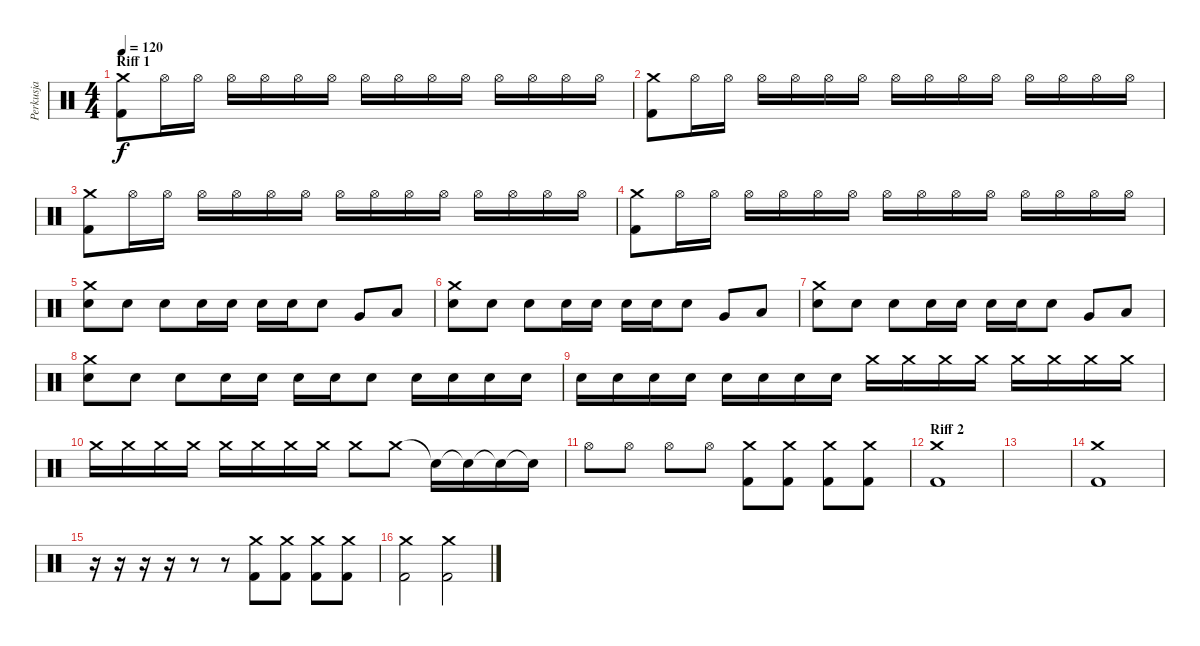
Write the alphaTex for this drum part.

\track ("Perkusja" "Perkusja") {instrument percussion}
\staff {score}
\articulation defaults
\ts (4 4)
\section ("" "Riff 1")
\tempo 120
\clef neutral
\ks c
("Crash medium (hit)" "Kick (hit) 2").8{dy f} "Hi-Hat (open)".16 "Hi-Hat (open)".16 "Hi-Hat (open)".16 "Hi-Hat (open)".16 "Hi-Hat (open)".16 "Hi-Hat (open)".16 "Hi-Hat (open)".16 "Hi-Hat (open)".16 "Hi-Hat (open)".16 "Hi-Hat (open)".16 "Hi-Hat (open)".16 "Hi-Hat (open)".16 "Hi-Hat (open)".16 "Hi-Hat (open)".16 |
("Crash medium (hit)" "Kick (hit) 2").8 "Hi-Hat (open)".16 "Hi-Hat (open)".16 "Hi-Hat (open)".16 "Hi-Hat (open)".16 "Hi-Hat (open)".16 "Hi-Hat (open)".16 "Hi-Hat (open)".16 "Hi-Hat (open)".16 "Hi-Hat (open)".16 "Hi-Hat (open)".16 "Hi-Hat (open)".16 "Hi-Hat (open)".16 "Hi-Hat (open)".16 "Hi-Hat (open)".16 |
("Crash medium (hit)" "Kick (hit) 2").8 "Hi-Hat (open)".16 "Hi-Hat (open)".16 "Hi-Hat (open)".16 "Hi-Hat (open)".16 "Hi-Hat (open)".16 "Hi-Hat (open)".16 "Hi-Hat (open)".16 "Hi-Hat (open)".16 "Hi-Hat (open)".16 "Hi-Hat (open)".16 "Hi-Hat (open)".16 "Hi-Hat (open)".16 "Hi-Hat (open)".16 "Hi-Hat (open)".16 |
("Crash medium (hit)" "Kick (hit) 2").8 "Hi-Hat (open)".16 "Hi-Hat (open)".16 "Hi-Hat (open)".16 "Hi-Hat (open)".16 "Hi-Hat (open)".16 "Hi-Hat (open)".16 "Hi-Hat (open)".16 "Hi-Hat (open)".16 "Hi-Hat (open)".16 "Hi-Hat (open)".16 "Hi-Hat (open)".16 "Hi-Hat (open)".16 "Hi-Hat (open)".16 "Hi-Hat (open)".16 |
("Crash medium (hit)" "Snare (hit) 2").8 "Snare (hit) 2".8 "Snare (hit) 2".8 "Snare (hit) 2".16 "Snare (hit) 2".16 "Snare (hit) 2".16 "Snare (hit) 2".16 "Snare (hit) 2".8 "Very Low Tom (hit)".8 "Low Tom (hit)".8 |
("Crash medium (hit)" "Snare (hit) 2").8 "Snare (hit) 2".8 "Snare (hit) 2".8 "Snare (hit) 2".16 "Snare (hit) 2".16 "Snare (hit) 2".16 "Snare (hit) 2".16 "Snare (hit) 2".8 "Very Low Tom (hit)".8 "Low Tom (hit)".8 |
("Crash medium (hit)" "Snare (hit) 2").8 "Snare (hit) 2".8 "Snare (hit) 2".8 "Snare (hit) 2".16 "Snare (hit) 2".16 "Snare (hit) 2".16 "Snare (hit) 2".16 "Snare (hit) 2".8 "Very Low Tom (hit)".8 "Low Tom (hit)".8 |
("Crash medium (hit)" "Snare (hit) 2").8 "Snare (hit) 2".8 "Snare (hit) 2".8 "Snare (hit) 2".16 "Snare (hit) 2".16 "Snare (hit) 2".16 "Snare (hit) 2".16 "Snare (hit) 2".8 "Snare (hit) 2".16 "Snare (hit) 2".16 "Snare (hit) 2".16 "Snare (hit) 2".16 |
"Snare (hit) 2".16 "Snare (hit) 2".16 "Snare (hit) 2".16 "Snare (hit) 2".16 "Snare (hit) 2".16 "Snare (hit) 2".16 "Snare (hit) 2".16 "Snare (hit) 2".16 "Crash medium (hit)".16 "Crash medium (hit)".16 "Crash medium (hit)".16 "Crash medium (hit)".16 "Crash medium (hit)".16 "Crash medium (hit)".16 "Crash medium (hit)".16 "Crash medium (hit)".16 |
"Crash medium (hit)".16 "Crash medium (hit)".16 "Crash medium (hit)".16 "Crash medium (hit)".16 "Crash medium (hit)".16 "Crash medium (hit)".16 "Crash medium (hit)".16 "Crash medium (hit)".16 "Crash medium (hit)".8 "Crash medium (hit)".8 "Snare (hit)"{t}.16 "Snare (hit)"{t}.16 "Snare (hit)"{t}.16 "Snare (hit)"{t}.16 |
"Hi-Hat (open)".8 "Hi-Hat (open)".8 "Hi-Hat (open)".8 "Hi-Hat (open)".8 ("Kick (hit) 2" "Crash medium (hit)").8 ("Kick (hit) 2" "Crash medium (hit)").8 ("Kick (hit) 2" "Crash medium (hit)").8 ("Kick (hit) 2" "Crash medium (hit)").8 |
\section ("" "Riff 2")
("Crash medium (hit)" "Kick (hit) 2").1 |
|
("Crash medium (hit)" "Kick (hit) 2").1 |
r.16 r.16 r.16 r.16 r.8 r.8 ("Kick (hit) 2" "Crash medium (hit)").8 ("Kick (hit) 2" "Crash medium (hit)").8 ("Kick (hit) 2" "Crash medium (hit)").8 ("Kick (hit) 2" "Crash medium (hit)").8 |
("Crash medium (hit)" "Kick (hit) 2").2 ("Crash medium (hit)" "Kick (hit) 2").2
